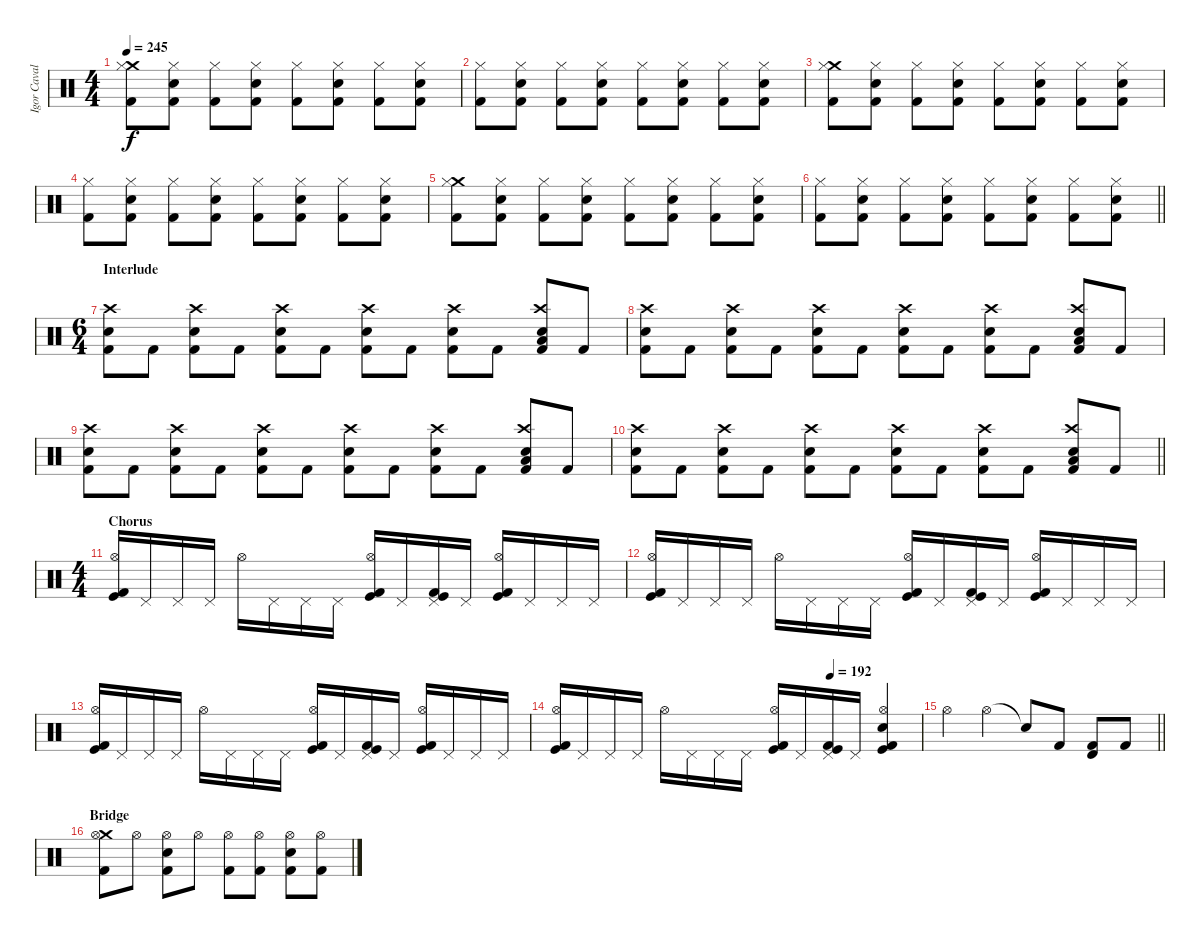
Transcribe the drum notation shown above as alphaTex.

\track ("Igor Cavalera" "Igor Caval") {instrument percussion}
\staff {score}
\articulation defaults
\ts (4 4)
\tempo 245
\clef neutral
\ks c
("Crash medium (hit)" "Hi-Hat (closed)" "Kick (hit) 2").8{dy f} ("Hi-Hat (closed)" "Electric Snare (hit)" "Kick (hit) 2").8 ("Hi-Hat (closed)" "Kick (hit) 2").8 ("Hi-Hat (closed)" "Electric Snare (hit)" "Kick (hit) 2").8 ("Hi-Hat (closed)" "Kick (hit) 2").8 ("Hi-Hat (closed)" "Electric Snare (hit)" "Kick (hit) 2").8 ("Hi-Hat (closed)" "Kick (hit) 2").8 ("Hi-Hat (closed)" "Electric Snare (hit)" "Kick (hit) 2").8 |
("Hi-Hat (closed)" "Kick (hit) 2").8 ("Hi-Hat (closed)" "Electric Snare (hit)" "Kick (hit) 2").8 ("Hi-Hat (closed)" "Kick (hit) 2").8 ("Hi-Hat (closed)" "Electric Snare (hit)" "Kick (hit) 2").8 ("Hi-Hat (closed)" "Kick (hit) 2").8 ("Hi-Hat (closed)" "Electric Snare (hit)" "Kick (hit) 2").8 ("Hi-Hat (closed)" "Kick (hit) 2").8 ("Hi-Hat (closed)" "Electric Snare (hit)" "Kick (hit) 2").8 |
("Crash medium (hit)" "Hi-Hat (closed)" "Kick (hit) 2").8 ("Hi-Hat (closed)" "Electric Snare (hit)" "Kick (hit) 2").8 ("Hi-Hat (closed)" "Kick (hit) 2").8 ("Hi-Hat (closed)" "Electric Snare (hit)" "Kick (hit) 2").8 ("Hi-Hat (closed)" "Kick (hit) 2").8 ("Hi-Hat (closed)" "Electric Snare (hit)" "Kick (hit) 2").8 ("Hi-Hat (closed)" "Kick (hit) 2").8 ("Hi-Hat (closed)" "Electric Snare (hit)" "Kick (hit) 2").8 |
("Hi-Hat (closed)" "Kick (hit) 2").8 ("Hi-Hat (closed)" "Electric Snare (hit)" "Kick (hit) 2").8 ("Hi-Hat (closed)" "Kick (hit) 2").8 ("Hi-Hat (closed)" "Electric Snare (hit)" "Kick (hit) 2").8 ("Hi-Hat (closed)" "Kick (hit) 2").8 ("Hi-Hat (closed)" "Electric Snare (hit)" "Kick (hit) 2").8 ("Hi-Hat (closed)" "Kick (hit) 2").8 ("Hi-Hat (closed)" "Electric Snare (hit)" "Kick (hit) 2").8 |
("Crash medium (hit)" "Hi-Hat (closed)" "Kick (hit) 2").8 ("Hi-Hat (closed)" "Electric Snare (hit)" "Kick (hit) 2").8 ("Hi-Hat (closed)" "Kick (hit) 2").8 ("Hi-Hat (closed)" "Electric Snare (hit)" "Kick (hit) 2").8 ("Hi-Hat (closed)" "Kick (hit) 2").8 ("Hi-Hat (closed)" "Electric Snare (hit)" "Kick (hit) 2").8 ("Hi-Hat (closed)" "Kick (hit) 2").8 ("Hi-Hat (closed)" "Electric Snare (hit)" "Kick (hit) 2").8 |
\barLineRight lightlight
("Hi-Hat (closed)" "Kick (hit) 2").8 ("Hi-Hat (closed)" "Electric Snare (hit)" "Kick (hit) 2").8 ("Hi-Hat (closed)" "Kick (hit) 2").8 ("Hi-Hat (closed)" "Electric Snare (hit)" "Kick (hit) 2").8 ("Hi-Hat (closed)" "Kick (hit) 2").8 ("Hi-Hat (closed)" "Electric Snare (hit)" "Kick (hit) 2").8 ("Hi-Hat (closed)" "Kick (hit) 2").8 ("Hi-Hat (closed)" "Electric Snare (hit)" "Kick (hit) 2").8 |
\ts (6 4)
\section ("" "Interlude")
("Crash high (hit)" "Electric Snare (hit)" "Kick (hit) 2").8 "Kick (hit) 2".8 ("Crash high (hit)" "Electric Snare (hit)" "Kick (hit) 2").8 "Kick (hit) 2".8 ("Crash high (hit)" "Electric Snare (hit)" "Kick (hit) 2").8 "Kick (hit) 2".8 ("Crash high (hit)" "Electric Snare (hit)" "Kick (hit) 2").8 "Kick (hit) 2".8 ("Crash high (hit)" "Electric Snare (hit)" "Kick (hit) 2").8 "Kick (hit) 2".8 ("Crash high (hit)" "Low Tom (hit)" "Electric Snare (hit)" "Kick (hit) 2").8 "Kick (hit) 2".8 |
("Crash high (hit)" "Electric Snare (hit)" "Kick (hit) 2").8 "Kick (hit) 2".8 ("Crash high (hit)" "Electric Snare (hit)" "Kick (hit) 2").8 "Kick (hit) 2".8 ("Crash high (hit)" "Electric Snare (hit)" "Kick (hit) 2").8 "Kick (hit) 2".8 ("Crash high (hit)" "Electric Snare (hit)" "Kick (hit) 2").8 "Kick (hit) 2".8 ("Crash high (hit)" "Electric Snare (hit)" "Kick (hit) 2").8 "Kick (hit) 2".8 ("Crash high (hit)" "Low Tom (hit)" "Electric Snare (hit)" "Kick (hit) 2").8 "Kick (hit) 2".8 |
("Crash high (hit)" "Electric Snare (hit)" "Kick (hit) 2").8 "Kick (hit) 2".8 ("Crash high (hit)" "Electric Snare (hit)" "Kick (hit) 2").8 "Kick (hit) 2".8 ("Crash high (hit)" "Electric Snare (hit)" "Kick (hit) 2").8 "Kick (hit) 2".8 ("Crash high (hit)" "Electric Snare (hit)" "Kick (hit) 2").8 "Kick (hit) 2".8 ("Crash high (hit)" "Electric Snare (hit)" "Kick (hit) 2").8 "Kick (hit) 2".8 ("Crash high (hit)" "Low Tom (hit)" "Electric Snare (hit)" "Kick (hit) 2").8 "Kick (hit) 2".8 |
\barLineRight lightlight
("Crash high (hit)" "Electric Snare (hit)" "Kick (hit) 2").8 "Kick (hit) 2".8 ("Crash high (hit)" "Electric Snare (hit)" "Kick (hit) 2").8 "Kick (hit) 2".8 ("Crash high (hit)" "Electric Snare (hit)" "Kick (hit) 2").8 "Kick (hit) 2".8 ("Crash high (hit)" "Electric Snare (hit)" "Kick (hit) 2").8 "Kick (hit) 2".8 ("Crash high (hit)" "Electric Snare (hit)" "Kick (hit) 2").8 "Kick (hit) 2".8 ("Crash high (hit)" "Low Tom (hit)" "Electric Snare (hit)" "Kick (hit) 2").8 "Kick (hit) 2".8 |
\ts (4 4)
\section ("" "Chorus")
("Hi-Hat (open)" "Kick (hit) 2" "Kick (hit)").16 "Pedal Hi-Hat (hit)".16 "Pedal Hi-Hat (hit)".16 "Pedal Hi-Hat (hit)".16 "Hi-Hat (open)".16 "Pedal Hi-Hat (hit)".16 "Pedal Hi-Hat (hit)".16 "Pedal Hi-Hat (hit)".16 ("Hi-Hat (open)" "Kick (hit) 2" "Kick (hit)").16 "Pedal Hi-Hat (hit)".16 ("Pedal Hi-Hat (hit)" "Kick (hit) 2" "Kick (hit)").16 "Pedal Hi-Hat (hit)".16 ("Hi-Hat (open)" "Kick (hit) 2" "Kick (hit)").16 "Pedal Hi-Hat (hit)".16 "Pedal Hi-Hat (hit)".16 "Pedal Hi-Hat (hit)".16 |
("Hi-Hat (open)" "Kick (hit) 2" "Kick (hit)").16 "Pedal Hi-Hat (hit)".16 "Pedal Hi-Hat (hit)".16 "Pedal Hi-Hat (hit)".16 "Hi-Hat (open)".16 "Pedal Hi-Hat (hit)".16 "Pedal Hi-Hat (hit)".16 "Pedal Hi-Hat (hit)".16 ("Hi-Hat (open)" "Kick (hit) 2" "Kick (hit)").16 "Pedal Hi-Hat (hit)".16 ("Pedal Hi-Hat (hit)" "Kick (hit) 2" "Kick (hit)").16 "Pedal Hi-Hat (hit)".16 ("Hi-Hat (open)" "Kick (hit) 2" "Kick (hit)").16 "Pedal Hi-Hat (hit)".16 "Pedal Hi-Hat (hit)".16 "Pedal Hi-Hat (hit)".16 |
("Hi-Hat (open)" "Kick (hit) 2" "Kick (hit)").16 "Pedal Hi-Hat (hit)".16 "Pedal Hi-Hat (hit)".16 "Pedal Hi-Hat (hit)".16 "Hi-Hat (open)".16 "Pedal Hi-Hat (hit)".16 "Pedal Hi-Hat (hit)".16 "Pedal Hi-Hat (hit)".16 ("Hi-Hat (open)" "Kick (hit) 2" "Kick (hit)").16 "Pedal Hi-Hat (hit)".16 ("Pedal Hi-Hat (hit)" "Kick (hit) 2" "Kick (hit)").16 "Pedal Hi-Hat (hit)".16 ("Hi-Hat (open)" "Kick (hit) 2" "Kick (hit)").16 "Pedal Hi-Hat (hit)".16 "Pedal Hi-Hat (hit)".16 "Pedal Hi-Hat (hit)".16 |
\tempo (192 0.75)
("Hi-Hat (open)" "Kick (hit) 2" "Kick (hit)").16 "Pedal Hi-Hat (hit)".16 "Pedal Hi-Hat (hit)".16 "Pedal Hi-Hat (hit)".16 "Hi-Hat (open)".16 "Pedal Hi-Hat (hit)".16 "Pedal Hi-Hat (hit)".16 "Pedal Hi-Hat (hit)".16 ("Hi-Hat (open)" "Kick (hit) 2" "Kick (hit)").16 "Pedal Hi-Hat (hit)".16 ("Pedal Hi-Hat (hit)" "Kick (hit) 2" "Kick (hit)").16 "Pedal Hi-Hat (hit)".16 ("Hi-Hat (open)" "Electric Snare (hit)" "Kick (hit) 2" "Kick (hit)").4 |
\barLineRight lightlight "Hi-Hat (open)".4 "Hi-Hat (open)".4 "Snare (hit)"{t}.8 "Kick (hit) 2".8
("Timbale high (hit)" "Kick (hit) 2").8 "Kick (hit) 2".8 |
\section ("" "Bridge")
("Crash medium (hit)" "Hi-Hat (open)" "Kick (hit) 2").8 "Hi-Hat (open)".8 ("Hi-Hat (open)" "Electric Snare (hit)" "Kick (hit) 2").8 "Hi-Hat (open)".8 ("Hi-Hat (open)" "Kick (hit) 2").8 ("Hi-Hat (open)" "Kick (hit) 2").8 ("Hi-Hat (open)" "Electric Snare (hit)" "Kick (hit) 2").8 ("Hi-Hat (open)" "Kick (hit) 2").8
